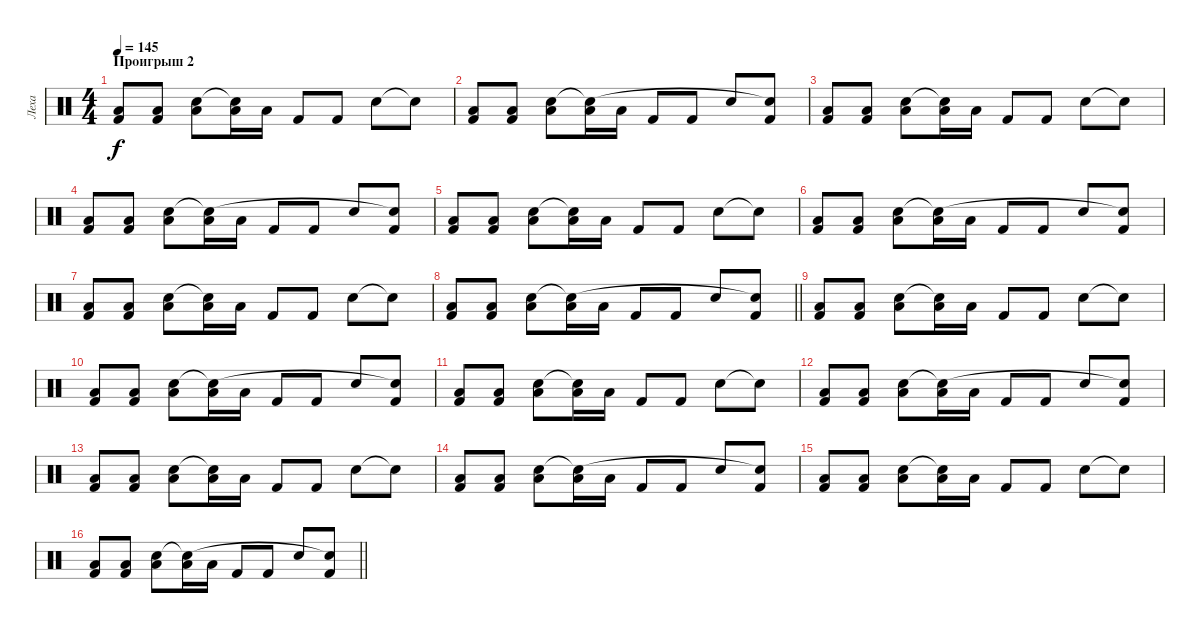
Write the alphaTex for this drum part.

\track ("Леха" "Леха") {instrument percussion}
\staff {score}
\articulation defaults
\ts (4 4)
\section ("" "Проигрыш 2")
\tempo 145
\clef neutral
\ks c
("Kick (hit) 2" "Low Floor Tom (hit)").8{dy f} ("Kick (hit) 2" "Low Floor Tom (hit)").8 ("Low Floor Tom (hit)" "Electric Snare (hit)").8 ("Low Floor Tom (hit)" "Snare (hit)"{t}).16 "Low Floor Tom (hit)".16 "Kick (hit) 2".8 "Kick (hit) 2".8 "Electric Snare (hit)".8 "Snare (hit)"{t}.8 |
("Kick (hit) 2" "Low Floor Tom (hit)").8 ("Kick (hit) 2" "Low Floor Tom (hit)").8 ("Low Floor Tom (hit)" "Electric Snare (hit)").8 ("Low Floor Tom (hit)" "Snare (hit)"{t}).16 "Low Floor Tom (hit)".16 "Kick (hit) 2".8 "Kick (hit) 2".8 "Electric Snare (hit)".8 ("Kick (hit) 2" "Snare (hit)"{t}).8 |
("Kick (hit) 2" "Low Floor Tom (hit)").8 ("Kick (hit) 2" "Low Floor Tom (hit)").8 ("Low Floor Tom (hit)" "Electric Snare (hit)").8 ("Low Floor Tom (hit)" "Snare (hit)"{t}).16 "Low Floor Tom (hit)".16 "Kick (hit) 2".8 "Kick (hit) 2".8 "Electric Snare (hit)".8 "Snare (hit)"{t}.8 |
("Kick (hit) 2" "Low Floor Tom (hit)").8 ("Kick (hit) 2" "Low Floor Tom (hit)").8 ("Low Floor Tom (hit)" "Electric Snare (hit)").8 ("Low Floor Tom (hit)" "Snare (hit)"{t}).16 "Low Floor Tom (hit)".16 "Kick (hit) 2".8 "Kick (hit) 2".8 "Electric Snare (hit)".8 ("Kick (hit) 2" "Snare (hit)"{t}).8 |
("Kick (hit) 2" "Low Floor Tom (hit)").8 ("Kick (hit) 2" "Low Floor Tom (hit)").8 ("Low Floor Tom (hit)" "Electric Snare (hit)").8 ("Low Floor Tom (hit)" "Snare (hit)"{t}).16 "Low Floor Tom (hit)".16 "Kick (hit) 2".8 "Kick (hit) 2".8 "Electric Snare (hit)".8 "Snare (hit)"{t}.8 |
("Kick (hit) 2" "Low Floor Tom (hit)").8 ("Kick (hit) 2" "Low Floor Tom (hit)").8 ("Low Floor Tom (hit)" "Electric Snare (hit)").8 ("Low Floor Tom (hit)" "Snare (hit)"{t}).16 "Low Floor Tom (hit)".16 "Kick (hit) 2".8 "Kick (hit) 2".8 "Electric Snare (hit)".8 ("Kick (hit) 2" "Snare (hit)"{t}).8 |
("Kick (hit) 2" "Low Floor Tom (hit)").8 ("Kick (hit) 2" "Low Floor Tom (hit)").8 ("Low Floor Tom (hit)" "Electric Snare (hit)").8 ("Low Floor Tom (hit)" "Snare (hit)"{t}).16 "Low Floor Tom (hit)".16 "Kick (hit) 2".8 "Kick (hit) 2".8 "Electric Snare (hit)".8 "Snare (hit)"{t}.8 |
\barLineRight lightlight
("Kick (hit) 2" "Low Floor Tom (hit)").8 ("Kick (hit) 2" "Low Floor Tom (hit)").8 ("Low Floor Tom (hit)" "Electric Snare (hit)").8 ("Low Floor Tom (hit)" "Snare (hit)"{t}).16 "Low Floor Tom (hit)".16 "Kick (hit) 2".8 "Kick (hit) 2".8 "Electric Snare (hit)".8 ("Kick (hit) 2" "Snare (hit)"{t}).8 |
("Kick (hit) 2" "Low Floor Tom (hit)").8 ("Kick (hit) 2" "Low Floor Tom (hit)").8 ("Low Floor Tom (hit)" "Electric Snare (hit)").8 ("Low Floor Tom (hit)" "Snare (hit)"{t}).16 "Low Floor Tom (hit)".16 "Kick (hit) 2".8 "Kick (hit) 2".8 "Electric Snare (hit)".8 "Snare (hit)"{t}.8 |
("Kick (hit) 2" "Low Floor Tom (hit)").8 ("Kick (hit) 2" "Low Floor Tom (hit)").8 ("Low Floor Tom (hit)" "Electric Snare (hit)").8 ("Low Floor Tom (hit)" "Snare (hit)"{t}).16 "Low Floor Tom (hit)".16 "Kick (hit) 2".8 "Kick (hit) 2".8 "Electric Snare (hit)".8 ("Kick (hit) 2" "Snare (hit)"{t}).8 |
("Kick (hit) 2" "Low Floor Tom (hit)").8 ("Kick (hit) 2" "Low Floor Tom (hit)").8 ("Low Floor Tom (hit)" "Electric Snare (hit)").8 ("Low Floor Tom (hit)" "Snare (hit)"{t}).16 "Low Floor Tom (hit)".16 "Kick (hit) 2".8 "Kick (hit) 2".8 "Electric Snare (hit)".8 "Snare (hit)"{t}.8 |
("Kick (hit) 2" "Low Floor Tom (hit)").8 ("Kick (hit) 2" "Low Floor Tom (hit)").8 ("Low Floor Tom (hit)" "Electric Snare (hit)").8 ("Low Floor Tom (hit)" "Snare (hit)"{t}).16 "Low Floor Tom (hit)".16 "Kick (hit) 2".8 "Kick (hit) 2".8 "Electric Snare (hit)".8 ("Kick (hit) 2" "Snare (hit)"{t}).8 |
("Kick (hit) 2" "Low Floor Tom (hit)").8 ("Kick (hit) 2" "Low Floor Tom (hit)").8 ("Low Floor Tom (hit)" "Electric Snare (hit)").8 ("Low Floor Tom (hit)" "Snare (hit)"{t}).16 "Low Floor Tom (hit)".16 "Kick (hit) 2".8 "Kick (hit) 2".8 "Electric Snare (hit)".8 "Snare (hit)"{t}.8 |
("Kick (hit) 2" "Low Floor Tom (hit)").8 ("Kick (hit) 2" "Low Floor Tom (hit)").8 ("Low Floor Tom (hit)" "Electric Snare (hit)").8 ("Low Floor Tom (hit)" "Snare (hit)"{t}).16 "Low Floor Tom (hit)".16 "Kick (hit) 2".8 "Kick (hit) 2".8 "Electric Snare (hit)".8 ("Kick (hit) 2" "Snare (hit)"{t}).8 |
("Kick (hit) 2" "Low Floor Tom (hit)").8 ("Kick (hit) 2" "Low Floor Tom (hit)").8 ("Low Floor Tom (hit)" "Electric Snare (hit)").8 ("Low Floor Tom (hit)" "Snare (hit)"{t}).16 "Low Floor Tom (hit)".16 "Kick (hit) 2".8 "Kick (hit) 2".8 "Electric Snare (hit)".8 "Snare (hit)"{t}.8 |
\barLineRight lightlight
("Kick (hit) 2" "Low Floor Tom (hit)").8 ("Kick (hit) 2" "Low Floor Tom (hit)").8 ("Low Floor Tom (hit)" "Electric Snare (hit)").8 ("Low Floor Tom (hit)" "Snare (hit)"{t}).16 "Low Floor Tom (hit)".16 "Kick (hit) 2".8 "Kick (hit) 2".8 "Electric Snare (hit)".8 ("Kick (hit) 2" "Snare (hit)"{t}).8
